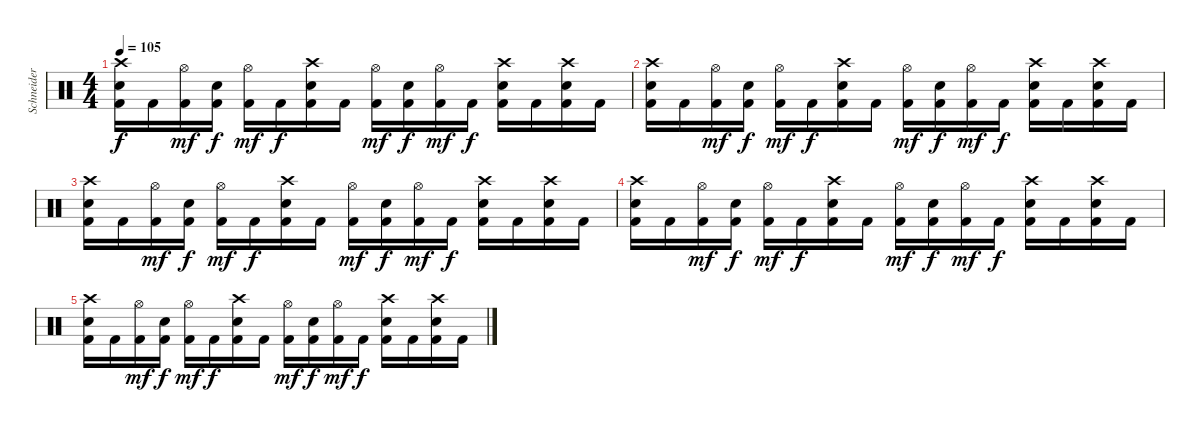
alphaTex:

\track ("Schneider" "Schneider") {instrument percussion}
\staff {score}
\articulation defaults
\ts (4 4)
\tempo 105
\clef neutral
\ks c
("Crash high (hit)" "Kick (hit) 2" "Electric Snare (hit)").16{dy f} "Kick (hit) 2".16 ("Hi-Hat (open)" "Kick (hit) 2").16{dy mf} ("Kick (hit) 2" "Electric Snare (hit)").16{dy f} ("Hi-Hat (open)" "Kick (hit) 2").16{dy mf} "Kick (hit) 2".16{dy f} ("Crash high (hit)" "Kick (hit) 2" "Electric Snare (hit)").16 "Kick (hit) 2".16 ("Hi-Hat (open)" "Kick (hit) 2").16{dy mf} ("Kick (hit) 2" "Electric Snare (hit)").16{dy f} ("Hi-Hat (open)" "Kick (hit) 2").16{dy mf} "Kick (hit) 2".16{dy f} ("Crash high (hit)" "Kick (hit) 2" "Electric Snare (hit)").16 "Kick (hit) 2".16 ("Crash high (hit)" "Kick (hit) 2" "Electric Snare (hit)").16 "Kick (hit) 2".16 |
("Crash high (hit)" "Kick (hit) 2" "Electric Snare (hit)").16 "Kick (hit) 2".16 ("Hi-Hat (open)" "Kick (hit) 2").16{dy mf} ("Kick (hit) 2" "Electric Snare (hit)").16{dy f} ("Hi-Hat (open)" "Kick (hit) 2").16{dy mf} "Kick (hit) 2".16{dy f} ("Crash high (hit)" "Kick (hit) 2" "Electric Snare (hit)").16 "Kick (hit) 2".16 ("Hi-Hat (open)" "Kick (hit) 2").16{dy mf} ("Kick (hit) 2" "Electric Snare (hit)").16{dy f} ("Hi-Hat (open)" "Kick (hit) 2").16{dy mf} "Kick (hit) 2".16{dy f} ("Crash high (hit)" "Kick (hit) 2" "Electric Snare (hit)").16 "Kick (hit) 2".16 ("Crash high (hit)" "Kick (hit) 2" "Electric Snare (hit)").16 "Kick (hit) 2".16 |
("Crash high (hit)" "Kick (hit) 2" "Electric Snare (hit)").16 "Kick (hit) 2".16 ("Hi-Hat (open)" "Kick (hit) 2").16{dy mf} ("Kick (hit) 2" "Electric Snare (hit)").16{dy f} ("Hi-Hat (open)" "Kick (hit) 2").16{dy mf} "Kick (hit) 2".16{dy f} ("Crash high (hit)" "Kick (hit) 2" "Electric Snare (hit)").16 "Kick (hit) 2".16 ("Hi-Hat (open)" "Kick (hit) 2").16{dy mf} ("Kick (hit) 2" "Electric Snare (hit)").16{dy f} ("Hi-Hat (open)" "Kick (hit) 2").16{dy mf} "Kick (hit) 2".16{dy f} ("Crash high (hit)" "Kick (hit) 2" "Electric Snare (hit)").16 "Kick (hit) 2".16 ("Crash high (hit)" "Kick (hit) 2" "Electric Snare (hit)").16 "Kick (hit) 2".16 |
("Crash high (hit)" "Kick (hit) 2" "Electric Snare (hit)").16 "Kick (hit) 2".16 ("Hi-Hat (open)" "Kick (hit) 2").16{dy mf} ("Kick (hit) 2" "Electric Snare (hit)").16{dy f} ("Hi-Hat (open)" "Kick (hit) 2").16{dy mf} "Kick (hit) 2".16{dy f} ("Crash high (hit)" "Kick (hit) 2" "Electric Snare (hit)").16 "Kick (hit) 2".16 ("Hi-Hat (open)" "Kick (hit) 2").16{dy mf} ("Kick (hit) 2" "Electric Snare (hit)").16{dy f} ("Hi-Hat (open)" "Kick (hit) 2").16{dy mf} "Kick (hit) 2".16{dy f} ("Crash high (hit)" "Kick (hit) 2" "Electric Snare (hit)").16 "Kick (hit) 2".16 ("Crash high (hit)" "Kick (hit) 2" "Electric Snare (hit)").16 "Kick (hit) 2".16 |
("Crash high (hit)" "Kick (hit) 2" "Electric Snare (hit)").16 "Kick (hit) 2".16 ("Hi-Hat (open)" "Kick (hit) 2").16{dy mf} ("Kick (hit) 2" "Electric Snare (hit)").16{dy f} ("Hi-Hat (open)" "Kick (hit) 2").16{dy mf} "Kick (hit) 2".16{dy f} ("Crash high (hit)" "Kick (hit) 2" "Electric Snare (hit)").16 "Kick (hit) 2".16 ("Hi-Hat (open)" "Kick (hit) 2").16{dy mf} ("Kick (hit) 2" "Electric Snare (hit)").16{dy f} ("Hi-Hat (open)" "Kick (hit) 2").16{dy mf} "Kick (hit) 2".16{dy f} ("Crash high (hit)" "Kick (hit) 2" "Electric Snare (hit)").16 "Kick (hit) 2".16 ("Crash high (hit)" "Kick (hit) 2" "Electric Snare (hit)").16 "Kick (hit) 2".16
